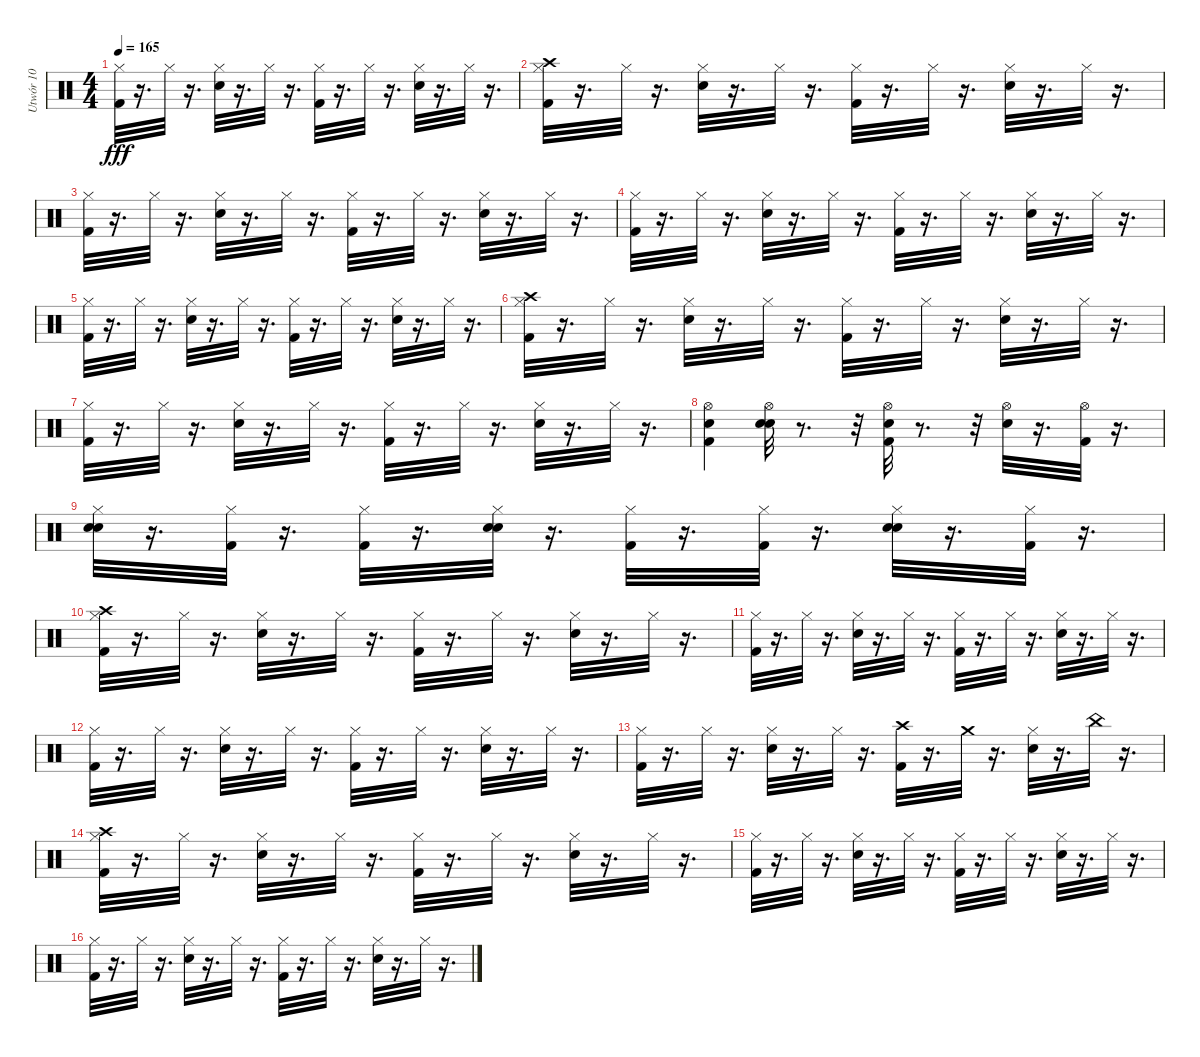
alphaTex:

\track ("Utwór 10" "Utwór 10") {instrument percussion}
\staff {score}
\articulation defaults
\ts (4 4)
\tempo 165
\clef neutral
\ks c
("Hi-Hat (closed)" "Kick (hit) 2").32{dy fff} r.16{d} "Hi-Hat (closed)".32 r.16{d} ("Hi-Hat (closed)" "Electric Snare (hit)").32 r.16{d} "Hi-Hat (closed)".32 r.16{d} ("Hi-Hat (closed)" "Kick (hit) 2").32 r.16{d} "Hi-Hat (closed)".32 r.16{d} ("Hi-Hat (closed)" "Electric Snare (hit)").32 r.16{d} "Hi-Hat (closed)".32 r.16{d} |
("Crash high (hit)" "Hi-Hat (closed)" "Kick (hit) 2").32 r.16{d} "Hi-Hat (closed)".32 r.16{d} ("Hi-Hat (closed)" "Electric Snare (hit)").32 r.16{d} "Hi-Hat (closed)".32 r.16{d} ("Hi-Hat (closed)" "Kick (hit) 2").32 r.16{d} "Hi-Hat (closed)".32 r.16{d} ("Hi-Hat (closed)" "Electric Snare (hit)").32 r.16{d} "Hi-Hat (closed)".32 r.16{d} |
("Hi-Hat (closed)" "Kick (hit) 2").32 r.16{d} "Hi-Hat (closed)".32 r.16{d} ("Hi-Hat (closed)" "Electric Snare (hit)").32 r.16{d} "Hi-Hat (closed)".32 r.16{d} ("Hi-Hat (closed)" "Kick (hit) 2").32 r.16{d} "Hi-Hat (closed)".32 r.16{d} ("Hi-Hat (closed)" "Electric Snare (hit)").32 r.16{d} "Hi-Hat (closed)".32 r.16{d} |
("Hi-Hat (closed)" "Kick (hit) 2").32 r.16{d} "Hi-Hat (closed)".32 r.16{d} ("Hi-Hat (closed)" "Electric Snare (hit)").32 r.16{d} "Hi-Hat (closed)".32 r.16{d} ("Hi-Hat (closed)" "Kick (hit) 2").32 r.16{d} "Hi-Hat (closed)".32 r.16{d} ("Hi-Hat (closed)" "Electric Snare (hit)").32 r.16{d} "Hi-Hat (closed)".32 r.16{d} |
("Hi-Hat (closed)" "Kick (hit) 2").32 r.16{d} "Hi-Hat (closed)".32 r.16{d} ("Hi-Hat (closed)" "Electric Snare (hit)").32 r.16{d} "Hi-Hat (closed)".32 r.16{d} ("Hi-Hat (closed)" "Kick (hit) 2").32 r.16{d} "Hi-Hat (closed)".32 r.16{d} ("Hi-Hat (closed)" "Electric Snare (hit)").32 r.16{d} "Hi-Hat (closed)".32 r.16{d} |
("Crash high (hit)" "Hi-Hat (closed)" "Kick (hit) 2").32 r.16{d} "Hi-Hat (closed)".32 r.16{d} ("Hi-Hat (closed)" "Electric Snare (hit)").32 r.16{d} "Hi-Hat (closed)".32 r.16{d} ("Hi-Hat (closed)" "Kick (hit) 2").32 r.16{d} "Hi-Hat (closed)".32 r.16{d} ("Hi-Hat (closed)" "Electric Snare (hit)").32 r.16{d} "Hi-Hat (closed)".32 r.16{d} |
("Hi-Hat (closed)" "Kick (hit) 2").32 r.16{d} "Hi-Hat (closed)".32 r.16{d} ("Hi-Hat (closed)" "Electric Snare (hit)").32 r.16{d} "Hi-Hat (closed)".32 r.16{d} ("Hi-Hat (closed)" "Kick (hit) 2").32 r.16{d} "Hi-Hat (closed)".32 r.16{d} ("Hi-Hat (closed)" "Electric Snare (hit)").32 r.16{d} "Hi-Hat (closed)".32 r.16{d} |
("Electric Snare (hit)" "Hi-Hat (open)" "Kick (hit) 2").4 ("Electric Snare (hit)" "Hi-Hat (open)" "Electric Snare (hit)").32 r.8{d} r.32 ("Electric Snare (hit)" "Hi-Hat (open)" "Kick (hit) 2").32 r.8{d} r.32 ("Hi-Hat (open)" "Electric Snare (hit)").32 r.16{d} ("Kick (hit) 2" "Hi-Hat (open)").32 r.16{d} |
("Electric Snare (hit)" "Hi-Hat (closed)" "Electric Snare (hit)").32 r.16{d} ("Kick (hit) 2" "Hi-Hat (closed)").32 r.16{d} ("Hi-Hat (closed)" "Kick (hit) 2").32 r.16{d} ("Electric Snare (hit)" "Electric Snare (hit)" "Hi-Hat (closed)").32 r.16{d} ("Hi-Hat (closed)" "Kick (hit) 2").32 r.16{d} ("Hi-Hat (closed)" "Kick (hit) 2").32 r.16{d} ("Electric Snare (hit)" "Hi-Hat (closed)" "Electric Snare (hit)").32 r.16{d} ("Kick (hit) 2" "Hi-Hat (closed)").32 r.16{d} |
("Crash high (hit)" "Hi-Hat (closed)" "Kick (hit) 2").32 r.16{d} "Hi-Hat (closed)".32 r.16{d} ("Hi-Hat (closed)" "Electric Snare (hit)").32 r.16{d} "Hi-Hat (closed)".32 r.16{d} ("Hi-Hat (closed)" "Kick (hit) 2").32 r.16{d} "Hi-Hat (closed)".32 r.16{d} ("Hi-Hat (closed)" "Electric Snare (hit)").32 r.16{d} "Hi-Hat (closed)".32 r.16{d} |
("Hi-Hat (closed)" "Kick (hit) 2").32 r.16{d} "Hi-Hat (closed)".32 r.16{d} ("Hi-Hat (closed)" "Electric Snare (hit)").32 r.16{d} "Hi-Hat (closed)".32 r.16{d} ("Hi-Hat (closed)" "Kick (hit) 2").32 r.16{d} "Hi-Hat (closed)".32 r.16{d} ("Hi-Hat (closed)" "Electric Snare (hit)").32 r.16{d} "Hi-Hat (closed)".32 r.16{d} |
("Hi-Hat (closed)" "Kick (hit) 2").32 r.16{d} "Hi-Hat (closed)".32 r.16{d} ("Hi-Hat (closed)" "Electric Snare (hit)").32 r.16{d} "Hi-Hat (closed)".32 r.16{d} ("Hi-Hat (closed)" "Kick (hit) 2").32 r.16{d} "Hi-Hat (closed)".32 r.16{d} ("Hi-Hat (closed)" "Electric Snare (hit)").32 r.16{d} "Hi-Hat (closed)".32 r.16{d} |
("Hi-Hat (closed)" "Kick (hit) 2").32 r.16{d} "Hi-Hat (closed)".32 r.16{d} ("Hi-Hat (closed)" "Electric Snare (hit)").32 r.16{d} "Hi-Hat (closed)".32 r.16{d} ("Crash high (hit)" "Kick (hit) 2").32 r.16{d} "Crash medium (hit)".32 r.16{d} ("Hi-Hat (closed)" "Electric Snare (hit)").32 r.16{d} "China (hit)".32 r.16{d} |
("Crash high (hit)" "Hi-Hat (closed)" "Kick (hit) 2").32 r.16{d} "Hi-Hat (closed)".32 r.16{d} ("Hi-Hat (closed)" "Electric Snare (hit)").32 r.16{d} "Hi-Hat (closed)".32 r.16{d} ("Hi-Hat (closed)" "Kick (hit) 2").32 r.16{d} "Hi-Hat (closed)".32 r.16{d} ("Hi-Hat (closed)" "Electric Snare (hit)").32 r.16{d} "Hi-Hat (closed)".32 r.16{d} |
("Hi-Hat (closed)" "Kick (hit) 2").32 r.16{d} "Hi-Hat (closed)".32 r.16{d} ("Hi-Hat (closed)" "Electric Snare (hit)").32 r.16{d} "Hi-Hat (closed)".32 r.16{d} ("Hi-Hat (closed)" "Kick (hit) 2").32 r.16{d} "Hi-Hat (closed)".32 r.16{d} ("Hi-Hat (closed)" "Electric Snare (hit)").32 r.16{d} "Hi-Hat (closed)".32 r.16{d} |
("Hi-Hat (closed)" "Kick (hit) 2").32 r.16{d} "Hi-Hat (closed)".32 r.16{d} ("Hi-Hat (closed)" "Electric Snare (hit)").32 r.16{d} "Hi-Hat (closed)".32 r.16{d} ("Hi-Hat (closed)" "Kick (hit) 2").32 r.16{d} "Hi-Hat (closed)".32 r.16{d} ("Hi-Hat (closed)" "Electric Snare (hit)").32 r.16{d} "Hi-Hat (closed)".32 r.16{d}
